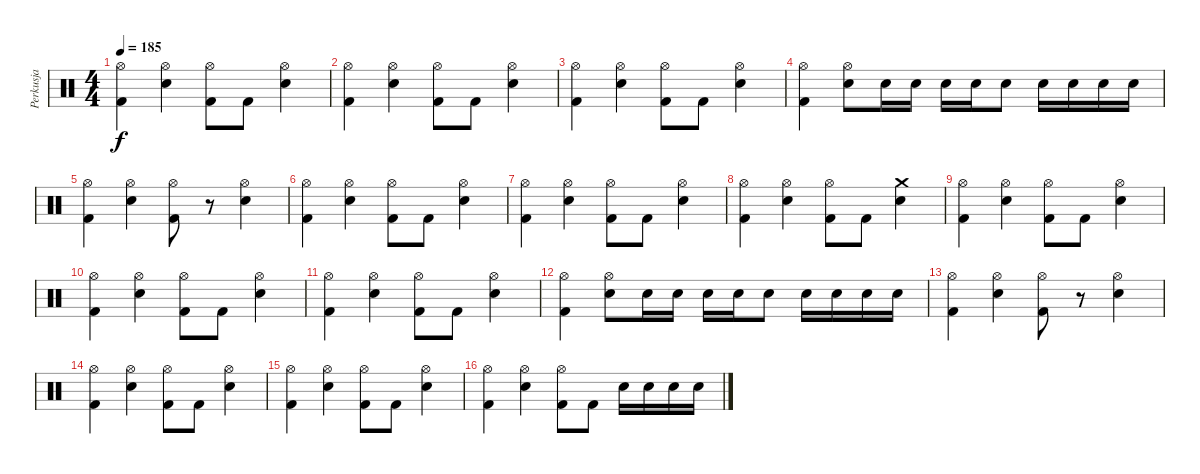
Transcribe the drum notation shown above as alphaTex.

\track ("Perkusja" "Perkusja") {instrument percussion}
\staff {score}
\articulation defaults
\ts (4 4)
\tempo 185
\clef neutral
\ks c
("Hi-Hat (open)" "Kick (hit) 2").4{dy f} ("Hi-Hat (open)" "Snare (hit) 2").4 ("Hi-Hat (open)" "Kick (hit) 2").8 "Kick (hit) 2".8 ("Hi-Hat (open)" "Snare (hit) 2").4 |
("Hi-Hat (open)" "Kick (hit) 2").4 ("Hi-Hat (open)" "Snare (hit) 2").4 ("Hi-Hat (open)" "Kick (hit) 2").8 "Kick (hit) 2".8 ("Hi-Hat (open)" "Snare (hit) 2").4 |
("Hi-Hat (open)" "Kick (hit) 2").4 ("Hi-Hat (open)" "Snare (hit) 2").4 ("Hi-Hat (open)" "Kick (hit) 2").8 "Kick (hit) 2".8 ("Hi-Hat (open)" "Snare (hit) 2").4 |
("Hi-Hat (open)" "Kick (hit) 2").4 ("Hi-Hat (open)" "Snare (hit) 2").8 "Snare (hit) 2".16 "Snare (hit) 2".16 "Snare (hit) 2".16 "Snare (hit) 2".16 "Snare (hit) 2".8 "Snare (hit) 2".16 "Snare (hit) 2".16 "Snare (hit) 2".16 "Snare (hit) 2".16 |
("Hi-Hat (open)" "Kick (hit) 2").4 ("Hi-Hat (open)" "Snare (hit) 2").4 ("Hi-Hat (open)" "Kick (hit) 2").8 r.8 ("Hi-Hat (open)" "Snare (hit) 2").4 |
("Hi-Hat (open)" "Kick (hit) 2").4 ("Hi-Hat (open)" "Snare (hit) 2").4 ("Hi-Hat (open)" "Kick (hit) 2").8 "Kick (hit) 2".8 ("Hi-Hat (open)" "Snare (hit) 2").4 |
("Hi-Hat (open)" "Kick (hit) 2").4 ("Hi-Hat (open)" "Snare (hit) 2").4 ("Hi-Hat (open)" "Kick (hit) 2").8 "Kick (hit) 2".8 ("Hi-Hat (open)" "Snare (hit) 2").4 |
("Hi-Hat (open)" "Kick (hit) 2").4 ("Hi-Hat (open)" "Snare (hit) 2").4 ("Hi-Hat (open)" "Kick (hit) 2").8 "Kick (hit) 2".8 ("Crash medium (hit)" "Snare (hit) 2").4 |
("Hi-Hat (open)" "Kick (hit) 2").4 ("Hi-Hat (open)" "Snare (hit) 2").4 ("Hi-Hat (open)" "Kick (hit) 2").8 "Kick (hit) 2".8 ("Hi-Hat (open)" "Snare (hit) 2").4 |
("Hi-Hat (open)" "Kick (hit) 2").4 ("Hi-Hat (open)" "Snare (hit) 2").4 ("Hi-Hat (open)" "Kick (hit) 2").8 "Kick (hit) 2".8 ("Hi-Hat (open)" "Snare (hit) 2").4 |
("Hi-Hat (open)" "Kick (hit) 2").4 ("Hi-Hat (open)" "Snare (hit) 2").4 ("Hi-Hat (open)" "Kick (hit) 2").8 "Kick (hit) 2".8 ("Hi-Hat (open)" "Snare (hit) 2").4 |
("Hi-Hat (open)" "Kick (hit) 2").4 ("Hi-Hat (open)" "Snare (hit) 2").8 "Snare (hit) 2".16 "Snare (hit) 2".16 "Snare (hit) 2".16 "Snare (hit) 2".16 "Snare (hit) 2".8 "Snare (hit) 2".16 "Snare (hit) 2".16 "Snare (hit) 2".16 "Snare (hit) 2".16 |
("Hi-Hat (open)" "Kick (hit) 2").4 ("Hi-Hat (open)" "Snare (hit) 2").4 ("Hi-Hat (open)" "Kick (hit) 2").8 r.8 ("Hi-Hat (open)" "Snare (hit) 2").4 |
("Hi-Hat (open)" "Kick (hit) 2").4 ("Hi-Hat (open)" "Snare (hit) 2").4 ("Hi-Hat (open)" "Kick (hit) 2").8 "Kick (hit) 2".8 ("Hi-Hat (open)" "Snare (hit) 2").4 |
("Hi-Hat (open)" "Kick (hit) 2").4 ("Hi-Hat (open)" "Snare (hit) 2").4 ("Hi-Hat (open)" "Kick (hit) 2").8 "Kick (hit) 2".8 ("Hi-Hat (open)" "Snare (hit) 2").4 |
("Hi-Hat (open)" "Kick (hit) 2").4 ("Hi-Hat (open)" "Snare (hit) 2").4 ("Hi-Hat (open)" "Kick (hit) 2").8 "Kick (hit) 2".8 "Snare (hit) 2".16 "Snare (hit) 2".16 "Snare (hit) 2".16 "Snare (hit) 2".16
